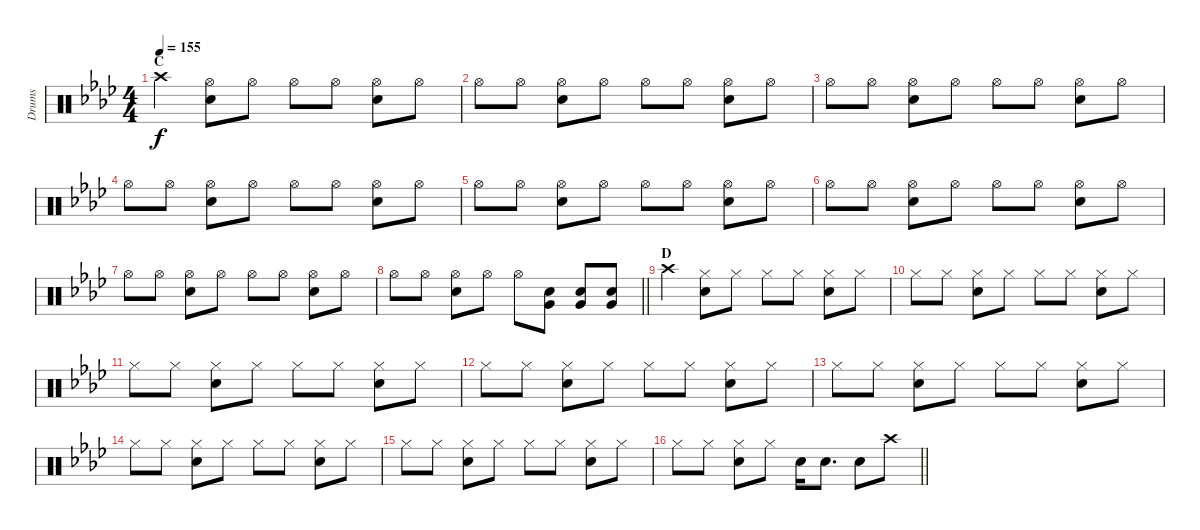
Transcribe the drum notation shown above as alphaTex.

\track ("Drums" "Drums") {instrument percussion}
\staff {score}
\articulation defaults
\ts (4 4)
\section ("" "C")
\tempo 155
\clef neutral
\ks ab "Crash high (hit)".4{dy f}
("Hi-Hat (open)" "Snare (hit) 2").8 "Hi-Hat (open)".8 "Hi-Hat (open)".8 "Hi-Hat (open)".8 ("Hi-Hat (open)" "Snare (hit) 2").8 "Hi-Hat (open)".8 |
"Hi-Hat (open)".8 "Hi-Hat (open)".8 ("Hi-Hat (open)" "Snare (hit) 2").8 "Hi-Hat (open)".8 "Hi-Hat (open)".8 "Hi-Hat (open)".8 ("Hi-Hat (open)" "Snare (hit) 2").8 "Hi-Hat (open)".8 |
"Hi-Hat (open)".8 "Hi-Hat (open)".8 ("Hi-Hat (open)" "Snare (hit) 2").8 "Hi-Hat (open)".8 "Hi-Hat (open)".8 "Hi-Hat (open)".8 ("Hi-Hat (open)" "Snare (hit) 2").8 "Hi-Hat (open)".8 |
"Hi-Hat (open)".8 "Hi-Hat (open)".8 ("Hi-Hat (open)" "Snare (hit) 2").8 "Hi-Hat (open)".8 "Hi-Hat (open)".8 "Hi-Hat (open)".8 ("Hi-Hat (open)" "Snare (hit) 2").8 "Hi-Hat (open)".8 |
"Hi-Hat (open)".8 "Hi-Hat (open)".8 ("Hi-Hat (open)" "Snare (hit) 2").8 "Hi-Hat (open)".8 "Hi-Hat (open)".8 "Hi-Hat (open)".8 ("Hi-Hat (open)" "Snare (hit) 2").8 "Hi-Hat (open)".8 |
"Hi-Hat (open)".8 "Hi-Hat (open)".8 ("Hi-Hat (open)" "Snare (hit) 2").8 "Hi-Hat (open)".8 "Hi-Hat (open)".8 "Hi-Hat (open)".8 ("Hi-Hat (open)" "Snare (hit) 2").8 "Hi-Hat (open)".8 |
"Hi-Hat (open)".8 "Hi-Hat (open)".8 ("Hi-Hat (open)" "Snare (hit) 2").8 "Hi-Hat (open)".8 "Hi-Hat (open)".8 "Hi-Hat (open)".8 ("Hi-Hat (open)" "Snare (hit) 2").8 "Hi-Hat (open)".8 |
\barLineRight lightlight "Hi-Hat (open)".8 "Hi-Hat (open)".8
("Hi-Hat (open)" "Snare (hit) 2").8 "Hi-Hat (open)".8 "Hi-Hat (open)".8 ("Very Low Tom (hit)" "Snare (hit) 2").8 ("Very Low Tom (hit)" "Snare (hit) 2").8 ("Very Low Tom (hit)" "Snare (hit) 2").8 |
\section ("" "D")
"Crash high (hit)".4 ("Hi-Hat (closed)" "Snare (hit) 2").8 "Hi-Hat (closed)".8 "Hi-Hat (closed)".8 "Hi-Hat (closed)".8 ("Hi-Hat (closed)" "Snare (hit) 2").8 "Hi-Hat (closed)".8 |
"Hi-Hat (closed)".8 "Hi-Hat (closed)".8 ("Hi-Hat (closed)" "Snare (hit) 2").8 "Hi-Hat (closed)".8 "Hi-Hat (closed)".8 "Hi-Hat (closed)".8 ("Hi-Hat (closed)" "Snare (hit) 2").8 "Hi-Hat (closed)".8 |
"Hi-Hat (closed)".8 "Hi-Hat (closed)".8 ("Hi-Hat (closed)" "Snare (hit) 2").8 "Hi-Hat (closed)".8 "Hi-Hat (closed)".8 "Hi-Hat (closed)".8 ("Hi-Hat (closed)" "Snare (hit) 2").8 "Hi-Hat (closed)".8 |
"Hi-Hat (closed)".8 "Hi-Hat (closed)".8 ("Hi-Hat (closed)" "Snare (hit) 2").8 "Hi-Hat (closed)".8 "Hi-Hat (closed)".8 "Hi-Hat (closed)".8 ("Hi-Hat (closed)" "Snare (hit) 2").8 "Hi-Hat (closed)".8 |
"Hi-Hat (closed)".8 "Hi-Hat (closed)".8 ("Hi-Hat (closed)" "Snare (hit) 2").8 "Hi-Hat (closed)".8 "Hi-Hat (closed)".8 "Hi-Hat (closed)".8 ("Hi-Hat (closed)" "Snare (hit) 2").8 "Hi-Hat (closed)".8 |
"Hi-Hat (closed)".8 "Hi-Hat (closed)".8 ("Hi-Hat (closed)" "Snare (hit) 2").8 "Hi-Hat (closed)".8 "Hi-Hat (closed)".8 "Hi-Hat (closed)".8 ("Hi-Hat (closed)" "Snare (hit) 2").8 "Hi-Hat (closed)".8 |
"Hi-Hat (closed)".8 "Hi-Hat (closed)".8 ("Hi-Hat (closed)" "Snare (hit) 2").8 "Hi-Hat (closed)".8 "Hi-Hat (closed)".8 "Hi-Hat (closed)".8 ("Hi-Hat (closed)" "Snare (hit) 2").8 "Hi-Hat (closed)".8 |
\barLineRight lightlight "Hi-Hat (closed)".8 "Hi-Hat (closed)".8
("Hi-Hat (closed)" "Snare (hit) 2").8 "Hi-Hat (closed)".8 "Snare (hit) 2".16 "Snare (hit) 2".8{d} "Snare (hit) 2".8 "Crash high (hit)".8
